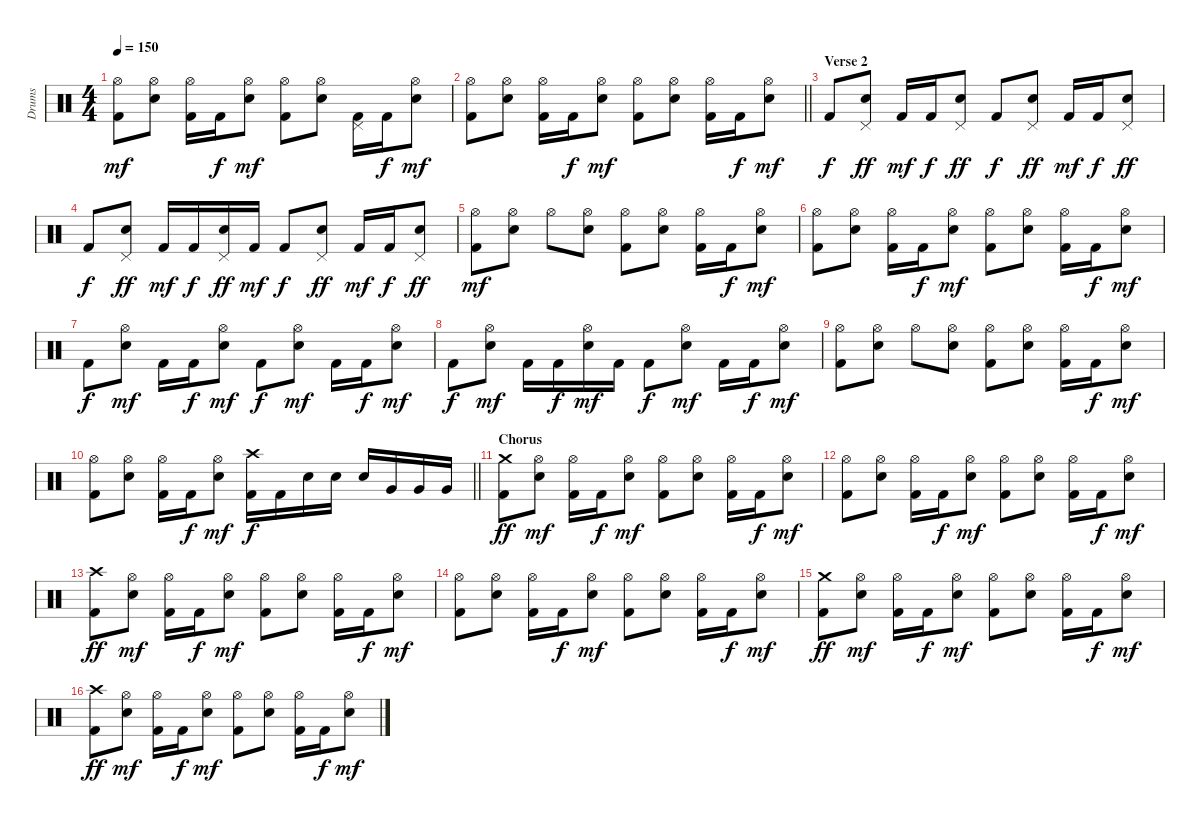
\track ("Drums" "Drums") {instrument percussion}
\staff {score}
\articulation defaults
\ts (4 4)
\tempo 150
\clef neutral
\ks c
("Hi-Hat (open)" "Kick (hit) 2").8{dy mf} ("Hi-Hat (open)" "Electric Snare (hit)").8 ("Hi-Hat (open)" "Kick (hit) 2").16 "Kick (hit) 2".16{dy f} ("Hi-Hat (open)" "Electric Snare (hit)").8{dy mf} ("Hi-Hat (open)" "Kick (hit) 2").8 ("Hi-Hat (open)" "Electric Snare (hit)").8 ("Pedal Hi-Hat (hit)" "Kick (hit) 2").16 "Kick (hit) 2".16{dy f} ("Hi-Hat (open)" "Electric Snare (hit)").8{dy mf} |
\barLineRight lightlight
("Hi-Hat (open)" "Kick (hit) 2").8 ("Hi-Hat (open)" "Electric Snare (hit)").8 ("Hi-Hat (open)" "Kick (hit) 2").16 "Kick (hit) 2".16{dy f} ("Hi-Hat (open)" "Electric Snare (hit)").8{dy mf} ("Hi-Hat (open)" "Kick (hit) 2").8 ("Hi-Hat (open)" "Electric Snare (hit)").8 ("Hi-Hat (open)" "Kick (hit) 2").16 "Kick (hit) 2".16{dy f} ("Hi-Hat (open)" "Electric Snare (hit)").8{dy mf} |
\section ("" "Verse 2")
"Kick (hit) 2".8{dy f} ("Pedal Hi-Hat (hit)" "Electric Snare (hit)").8{dy ff} "Kick (hit) 2".16{dy mf} "Kick (hit) 2".16{dy f} ("Pedal Hi-Hat (hit)" "Electric Snare (hit)").8{dy ff} "Kick (hit) 2".8{dy f} ("Pedal Hi-Hat (hit)" "Electric Snare (hit)").8{dy ff} "Kick (hit) 2".16{dy mf} "Kick (hit) 2".16{dy f} ("Pedal Hi-Hat (hit)" "Electric Snare (hit)").8{dy ff} |
"Kick (hit) 2".8{dy f} ("Pedal Hi-Hat (hit)" "Electric Snare (hit)").8{dy ff} "Kick (hit) 2".16{dy mf} "Kick (hit) 2".16{dy f} ("Pedal Hi-Hat (hit)" "Electric Snare (hit)").16{dy ff} "Kick (hit) 2".16{dy mf} "Kick (hit) 2".8{dy f} ("Pedal Hi-Hat (hit)" "Electric Snare (hit)").8{dy ff} "Kick (hit) 2".16{dy mf} "Kick (hit) 2".16{dy f} ("Pedal Hi-Hat (hit)" "Electric Snare (hit)").8{dy ff} |
("Hi-Hat (open)" "Kick (hit) 2").8{dy mf} ("Hi-Hat (open)" "Electric Snare (hit)").8 "Hi-Hat (open)".8 ("Hi-Hat (open)" "Electric Snare (hit)").8 ("Hi-Hat (open)" "Kick (hit) 2").8 ("Hi-Hat (open)" "Electric Snare (hit)").8 ("Hi-Hat (open)" "Kick (hit) 2").16 "Kick (hit) 2".16{dy f} ("Hi-Hat (open)" "Electric Snare (hit)").8{dy mf} |
("Hi-Hat (open)" "Kick (hit) 2").8 ("Hi-Hat (open)" "Electric Snare (hit)").8 ("Hi-Hat (open)" "Kick (hit) 2").16 "Kick (hit) 2".16{dy f} ("Hi-Hat (open)" "Electric Snare (hit)").8{dy mf} ("Hi-Hat (open)" "Kick (hit) 2").8 ("Hi-Hat (open)" "Electric Snare (hit)").8 ("Hi-Hat (open)" "Kick (hit) 2").16 "Kick (hit) 2".16{dy f} ("Hi-Hat (open)" "Electric Snare (hit)").8{dy mf} |
"Kick (hit) 2".8{dy f} ("Hi-Hat (open)" "Electric Snare (hit)").8{dy mf} "Kick (hit) 2".16 "Kick (hit) 2".16{dy f} ("Hi-Hat (open)" "Electric Snare (hit)").8{dy mf} "Kick (hit) 2".8{dy f} ("Hi-Hat (open)" "Electric Snare (hit)").8{dy mf} "Kick (hit) 2".16 "Kick (hit) 2".16{dy f} ("Hi-Hat (open)" "Electric Snare (hit)").8{dy mf} |
"Kick (hit) 2".8{dy f} ("Hi-Hat (open)" "Electric Snare (hit)").8{dy mf} "Kick (hit) 2".16 "Kick (hit) 2".16{dy f} ("Hi-Hat (open)" "Electric Snare (hit)").16{dy mf} "Kick (hit) 2".16 "Kick (hit) 2".8{dy f} ("Hi-Hat (open)" "Electric Snare (hit)").8{dy mf} "Kick (hit) 2".16 "Kick (hit) 2".16{dy f} ("Hi-Hat (open)" "Electric Snare (hit)").8{dy mf} |
("Hi-Hat (open)" "Kick (hit) 2").8 ("Hi-Hat (open)" "Electric Snare (hit)").8 "Hi-Hat (open)".8 ("Hi-Hat (open)" "Electric Snare (hit)").8 ("Hi-Hat (open)" "Kick (hit) 2").8 ("Hi-Hat (open)" "Electric Snare (hit)").8 ("Hi-Hat (open)" "Kick (hit) 2").16 "Kick (hit) 2".16{dy f} ("Hi-Hat (open)" "Electric Snare (hit)").8{dy mf} |
\barLineRight lightlight
("Hi-Hat (open)" "Kick (hit) 2").8 ("Hi-Hat (open)" "Electric Snare (hit)").8 ("Hi-Hat (open)" "Kick (hit) 2").16 "Kick (hit) 2".16{dy f} ("Hi-Hat (open)" "Electric Snare (hit)").8{dy mf} ("Crash high (hit)" "Kick (hit) 2").16{dy f} "Kick (hit) 2".16 "Electric Snare (hit)".16 "Electric Snare (hit)".16 "Electric Snare (hit)".16 "Very Low Tom (hit)".16 "Very Low Tom (hit)".16 "Very Low Tom (hit)".16 |
\section ("" "Chorus")
("Crash medium (hit)" "Kick (hit) 2").8{dy ff} ("Hi-Hat (open)" "Electric Snare (hit)").8{dy mf} ("Hi-Hat (open)" "Kick (hit) 2").16 "Kick (hit) 2".16{dy f} ("Hi-Hat (open)" "Electric Snare (hit)").8{dy mf} ("Hi-Hat (open)" "Kick (hit) 2").8 ("Hi-Hat (open)" "Electric Snare (hit)").8 ("Hi-Hat (open)" "Kick (hit) 2").16 "Kick (hit) 2".16{dy f} ("Hi-Hat (open)" "Electric Snare (hit)").8{dy mf} |
("Hi-Hat (open)" "Kick (hit) 2").8 ("Hi-Hat (open)" "Electric Snare (hit)").8 ("Hi-Hat (open)" "Kick (hit) 2").16 "Kick (hit) 2".16{dy f} ("Hi-Hat (open)" "Electric Snare (hit)").8{dy mf} ("Hi-Hat (open)" "Kick (hit) 2").8 ("Hi-Hat (open)" "Electric Snare (hit)").8 ("Hi-Hat (open)" "Kick (hit) 2").16 "Kick (hit) 2".16{dy f} ("Hi-Hat (open)" "Electric Snare (hit)").8{dy mf} |
("Crash high (hit)" "Kick (hit) 2").8{dy ff} ("Hi-Hat (open)" "Electric Snare (hit)").8{dy mf} ("Hi-Hat (open)" "Kick (hit) 2").16 "Kick (hit) 2".16{dy f} ("Hi-Hat (open)" "Electric Snare (hit)").8{dy mf} ("Hi-Hat (open)" "Kick (hit) 2").8 ("Hi-Hat (open)" "Electric Snare (hit)").8 ("Hi-Hat (open)" "Kick (hit) 2").16 "Kick (hit) 2".16{dy f} ("Hi-Hat (open)" "Electric Snare (hit)").8{dy mf} |
("Hi-Hat (open)" "Kick (hit) 2").8 ("Hi-Hat (open)" "Electric Snare (hit)").8 ("Hi-Hat (open)" "Kick (hit) 2").16 "Kick (hit) 2".16{dy f} ("Hi-Hat (open)" "Electric Snare (hit)").8{dy mf} ("Hi-Hat (open)" "Kick (hit) 2").8 ("Hi-Hat (open)" "Electric Snare (hit)").8 ("Hi-Hat (open)" "Kick (hit) 2").16 "Kick (hit) 2".16{dy f} ("Hi-Hat (open)" "Electric Snare (hit)").8{dy mf} |
("Crash medium (hit)" "Kick (hit) 2").8{dy ff} ("Hi-Hat (open)" "Electric Snare (hit)").8{dy mf} ("Hi-Hat (open)" "Kick (hit) 2").16 "Kick (hit) 2".16{dy f} ("Hi-Hat (open)" "Electric Snare (hit)").8{dy mf} ("Hi-Hat (open)" "Kick (hit) 2").8 ("Hi-Hat (open)" "Electric Snare (hit)").8 ("Hi-Hat (open)" "Kick (hit) 2").16 "Kick (hit) 2".16{dy f} ("Hi-Hat (open)" "Electric Snare (hit)").8{dy mf} |
("Crash high (hit)" "Kick (hit) 2").8{dy ff} ("Hi-Hat (open)" "Electric Snare (hit)").8{dy mf} ("Hi-Hat (open)" "Kick (hit) 2").16 "Kick (hit) 2".16{dy f} ("Hi-Hat (open)" "Electric Snare (hit)").8{dy mf} ("Hi-Hat (open)" "Kick (hit) 2").8 ("Hi-Hat (open)" "Electric Snare (hit)").8 ("Hi-Hat (open)" "Kick (hit) 2").16 "Kick (hit) 2".16{dy f} ("Hi-Hat (open)" "Electric Snare (hit)").8{dy mf}
